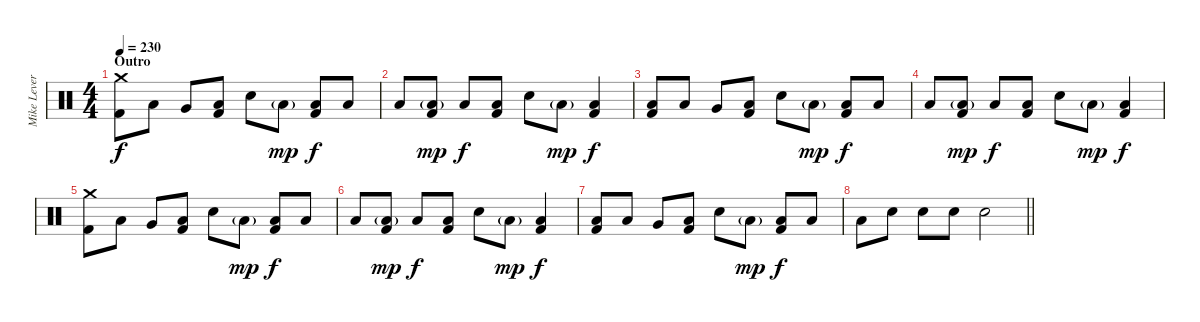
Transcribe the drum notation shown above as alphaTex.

\track ("Mike Leverence - Drums" "Mike Lever") {instrument percussion}
\staff {score}
\articulation defaults
\ts (4 4)
\section ("" "Outro")
\tempo 230
\clef neutral
\ks c
("Crash medium (hit)" "Kick (hit) 2").8{dy f} "Low Tom (hit)".8 "Very Low Tom (hit)".8 ("Low Floor Tom (hit)" "Kick (hit) 2").8 "Electric Snare (hit)".8 "Low Floor Tom (hit)"{g}.8{dy mp} ("Low Floor Tom (hit)" "Kick (hit) 2").8{dy f} "Low Tom (hit)".8 |
"Low Floor Tom (hit)".8 ("Low Floor Tom (hit)"{g} "Kick (hit) 2").8{dy mp} "Low Tom (hit)".8{dy f} ("Low Floor Tom (hit)" "Kick (hit) 2").8 "Electric Snare (hit)".8 "Low Floor Tom (hit)"{g}.8{dy mp} ("Low Floor Tom (hit)" "Kick (hit) 2").4{dy f} |
("Low Floor Tom (hit)" "Kick (hit) 2").8 "Low Tom (hit)".8 "Very Low Tom (hit)".8 ("Low Floor Tom (hit)" "Kick (hit) 2").8 "Electric Snare (hit)".8 "Low Floor Tom (hit)"{g}.8{dy mp} ("Low Floor Tom (hit)" "Kick (hit) 2").8{dy f} "Low Tom (hit)".8 |
"Low Floor Tom (hit)".8 ("Low Floor Tom (hit)"{g} "Kick (hit) 2").8{dy mp} "Low Tom (hit)".8{dy f} ("Low Floor Tom (hit)" "Kick (hit) 2").8 "Electric Snare (hit)".8 "Low Floor Tom (hit)"{g}.8{dy mp} ("Low Floor Tom (hit)" "Kick (hit) 2").4{dy f} |
("Crash medium (hit)" "Kick (hit) 2").8 "Low Tom (hit)".8 "Very Low Tom (hit)".8 ("Low Floor Tom (hit)" "Kick (hit) 2").8 "Electric Snare (hit)".8 "Low Floor Tom (hit)"{g}.8{dy mp} ("Low Floor Tom (hit)" "Kick (hit) 2").8{dy f} "Low Tom (hit)".8 |
"Low Floor Tom (hit)".8 ("Low Floor Tom (hit)"{g} "Kick (hit) 2").8{dy mp} "Low Tom (hit)".8{dy f} ("Low Floor Tom (hit)" "Kick (hit) 2").8 "Electric Snare (hit)".8 "Low Floor Tom (hit)"{g}.8{dy mp} ("Low Floor Tom (hit)" "Kick (hit) 2").4{dy f} |
("Low Floor Tom (hit)" "Kick (hit) 2").8 "Low Tom (hit)".8 "Very Low Tom (hit)".8 ("Low Floor Tom (hit)" "Kick (hit) 2").8 "Electric Snare (hit)".8 "Low Floor Tom (hit)"{g}.8{dy mp} ("Low Floor Tom (hit)" "Kick (hit) 2").8{dy f} "Low Tom (hit)".8 |
\barLineRight lightlight "Low Floor Tom (hit)".8 "Electric Snare (hit)".8 "Electric Snare (hit)".8 "Electric Snare (hit)".8 "Electric Snare (hit)".2
